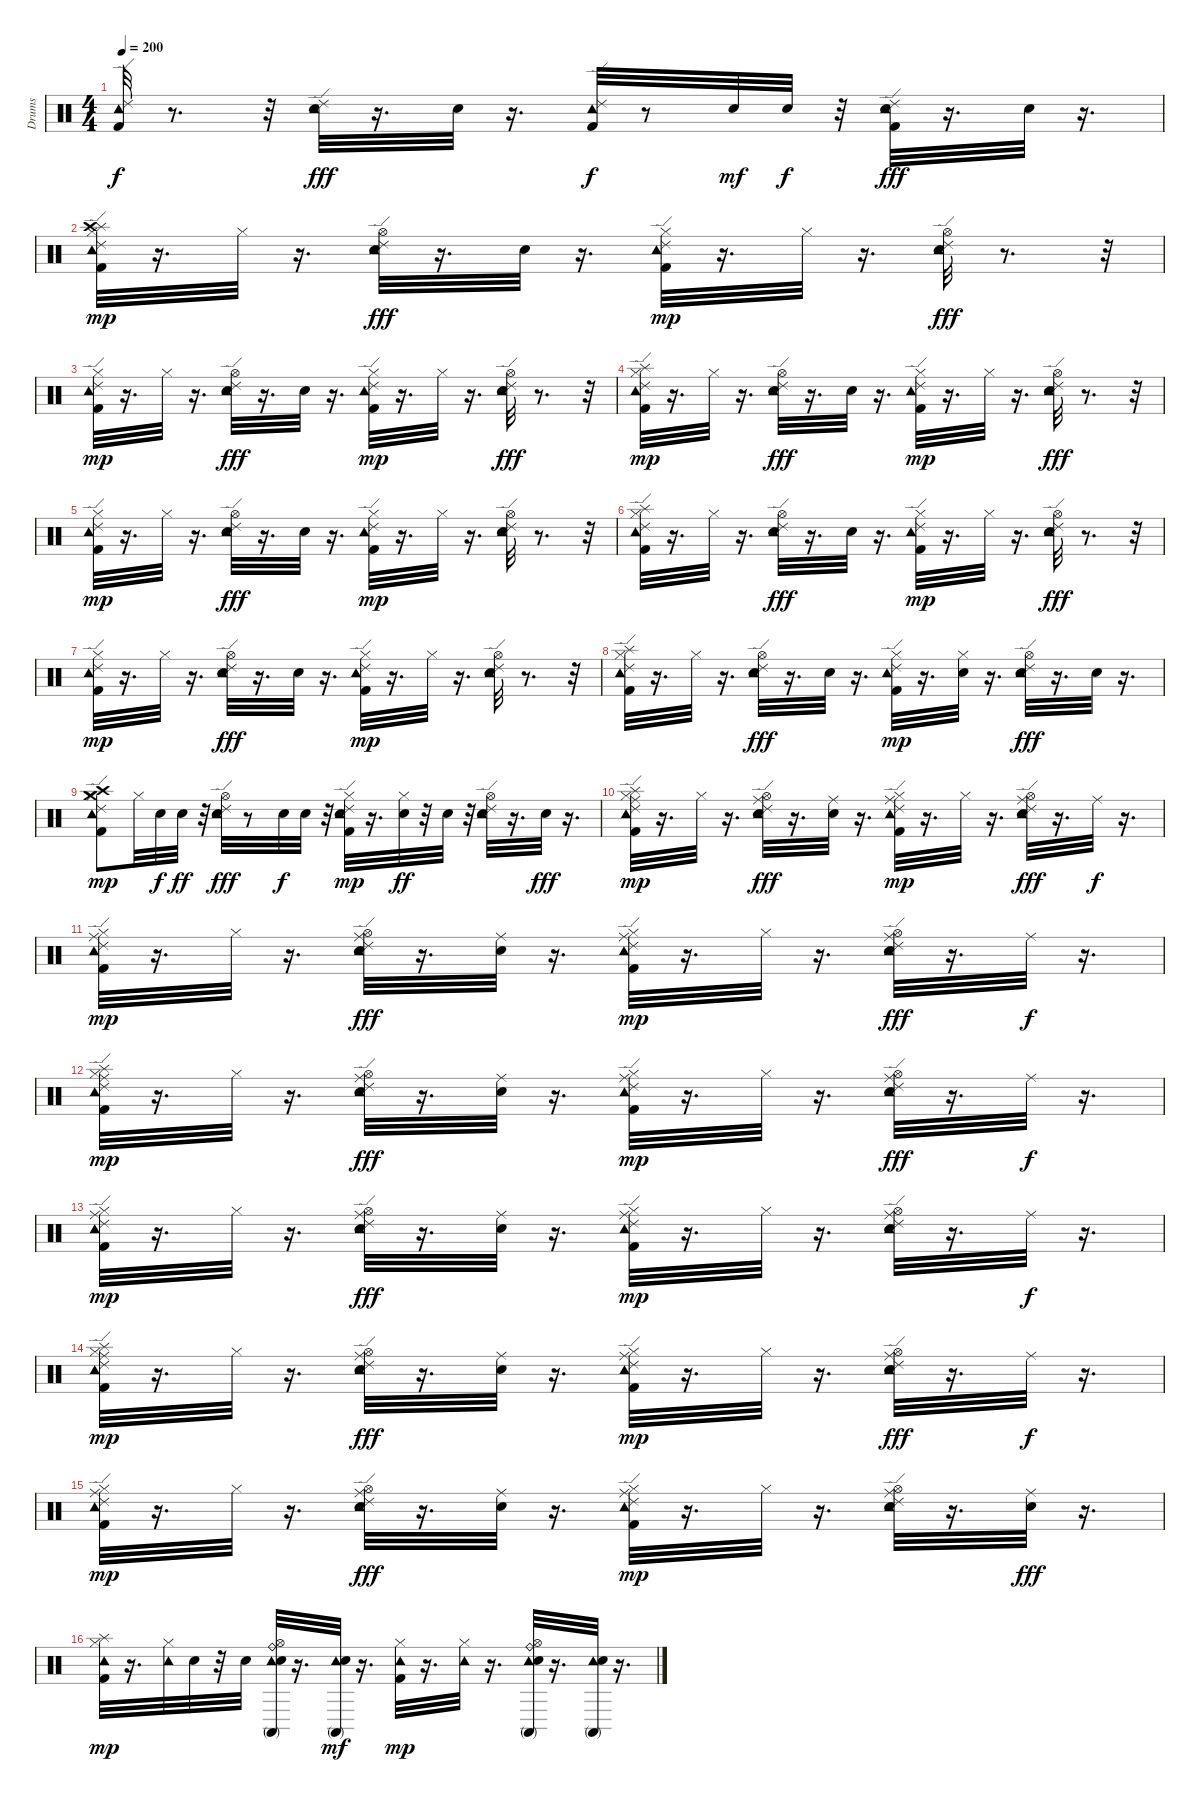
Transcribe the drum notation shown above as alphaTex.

\track ("Drums" "Drums") {instrument percussion}
\staff {score}
\articulation defaults
\ts (4 4)
\tempo 200
\clef neutral
\ks c
("Ride (edge) 2" "Tambourine (hit)" "Kick (hit) 2").32{dy f} r.8{d} r.32 ("Ride (edge) 2" "Tambourine (hit)" "Electric Snare (hit)").32{dy fff} r.16{d} "Electric Snare (hit)".32 r.16{d} ("Ride (edge) 2" "Tambourine (hit)" "Kick (hit) 2").32{dy f} r.8 "Electric Snare (hit)".32{dy mf} "Electric Snare (hit)".32{dy f} r.32 ("Electric Snare (hit)" "Ride (edge) 2" "Tambourine (hit)" "Kick (hit) 2").32{dy fff} r.16{d} "Electric Snare (hit)".32 r.16{d} |
("Ride (edge) 2" "Tambourine (hit)" "Hi-Hat (closed)" "Kick (hit) 2" "Splash (hit)" "Crash high (hit)").32{dy mp} r.16{d} "Hi-Hat (closed)".32 r.16{d} ("Ride (edge) 2" "Tambourine (hit)" "Hi-Hat (open)" "Electric Snare (hit)").32{dy fff} r.16{d} "Electric Snare (hit)".32 r.16{d} ("Ride (edge) 2" "Tambourine (hit)" "Kick (hit) 2" "Hi-Hat (closed)").32{dy mp} r.16{d} "Hi-Hat (closed)".32 r.16{d} ("Ride (edge) 2" "Tambourine (hit)" "Hi-Hat (open)" "Electric Snare (hit)").32{dy fff} r.8{d} r.32 |
("Ride (edge) 2" "Tambourine (hit)" "Hi-Hat (closed)" "Kick (hit) 2").32{dy mp} r.16{d} "Hi-Hat (closed)".32 r.16{d} ("Ride (edge) 2" "Tambourine (hit)" "Hi-Hat (open)" "Electric Snare (hit)").32{dy fff} r.16{d} "Electric Snare (hit)".32 r.16{d} ("Ride (edge) 2" "Tambourine (hit)" "Kick (hit) 2" "Hi-Hat (closed)").32{dy mp} r.16{d} "Hi-Hat (closed)".32 r.16{d} ("Ride (edge) 2" "Tambourine (hit)" "Hi-Hat (open)" "Electric Snare (hit)").32{dy fff} r.8{d} r.32 |
("Ride (edge) 2" "Tambourine (hit)" "Hi-Hat (closed)" "Kick (hit) 2" "Splash (hit)").32{dy mp} r.16{d} "Hi-Hat (closed)".32 r.16{d} ("Ride (edge) 2" "Tambourine (hit)" "Hi-Hat (open)" "Electric Snare (hit)").32{dy fff} r.16{d} "Electric Snare (hit)".32 r.16{d} ("Ride (edge) 2" "Tambourine (hit)" "Kick (hit) 2" "Hi-Hat (closed)").32{dy mp} r.16{d} "Hi-Hat (closed)".32 r.16{d} ("Ride (edge) 2" "Tambourine (hit)" "Hi-Hat (open)" "Electric Snare (hit)").32{dy fff} r.8{d} r.32 |
("Tambourine (hit)" "Hi-Hat (closed)" "Kick (hit) 2" "Ride (edge) 2").32{dy mp} r.16{d} "Hi-Hat (closed)".32 r.16{d} ("Ride (edge) 2" "Hi-Hat (open)" "Electric Snare (hit)" "Tambourine (hit)").32{dy fff} r.16{d} "Electric Snare (hit)".32 r.16{d} ("Tambourine (hit)" "Kick (hit) 2" "Hi-Hat (closed)" "Ride (edge) 2").32{dy mp} r.16{d} "Hi-Hat (closed)".32 r.16{d} ("Tambourine (hit)" "Hi-Hat (open)" "Electric Snare (hit)" "Ride (edge) 2").32 r.8{d} r.32 |
("Ride (edge) 2" "Tambourine (hit)" "Hi-Hat (closed)" "Kick (hit) 2" "Splash (hit)").32 r.16{d} "Hi-Hat (closed)".32 r.16{d} ("Ride (edge) 2" "Tambourine (hit)" "Hi-Hat (open)" "Electric Snare (hit)").32{dy fff} r.16{d} "Electric Snare (hit)".32 r.16{d} ("Ride (edge) 2" "Tambourine (hit)" "Kick (hit) 2" "Hi-Hat (closed)").32{dy mp} r.16{d} "Hi-Hat (closed)".32 r.16{d} ("Ride (edge) 2" "Tambourine (hit)" "Hi-Hat (open)" "Electric Snare (hit)").32{dy fff} r.8{d} r.32 |
("Tambourine (hit)" "Hi-Hat (closed)" "Kick (hit) 2" "Ride (edge) 2").32{dy mp} r.16{d} "Hi-Hat (closed)".32 r.16{d} ("Ride (edge) 2" "Hi-Hat (open)" "Electric Snare (hit)" "Tambourine (hit)").32{dy fff} r.16{d} "Electric Snare (hit)".32 r.16{d} ("Tambourine (hit)" "Kick (hit) 2" "Hi-Hat (closed)" "Ride (edge) 2").32{dy mp} r.16{d} "Hi-Hat (closed)".32 r.16{d} ("Tambourine (hit)" "Hi-Hat (open)" "Electric Snare (hit)" "Ride (edge) 2").32 r.8{d} r.32 |
("Ride (edge) 2" "Tambourine (hit)" "Hi-Hat (closed)" "Kick (hit) 2" "Splash (hit)").32 r.16{d} "Hi-Hat (closed)".32 r.16{d} ("Ride (edge) 2" "Tambourine (hit)" "Hi-Hat (open)" "Electric Snare (hit)").32{dy fff} r.16{d} "Electric Snare (hit)".32 r.16{d} ("Ride (edge) 2" "Tambourine (hit)" "Kick (hit) 2" "Hi-Hat (closed)").32{dy mp} r.16{d} ("Electric Snare (hit)" "Hi-Hat (closed)").32 r.16{d} ("Ride (edge) 2" "Tambourine (hit)" "Hi-Hat (open)" "Electric Snare (hit)").32{dy fff} r.16{d} "Electric Snare (hit)".32 r.16{d} |
("Crash high (hit)" "Crash medium (hit)" "Tambourine (hit)" "Hi-Hat (closed)" "Kick (hit) 2" "Ride (edge) 2").8{dy mp} "Hi-Hat (closed)".32 "Electric Snare (hit)".32{dy f} "Electric Snare (hit)".32{dy ff} r.32 ("Ride (edge) 2" "Hi-Hat (open)" "Electric Snare (hit)" "Tambourine (hit)").32{dy fff} r.8 "Electric Snare (hit)".32{dy f} "Electric Snare (hit)".32 r.32 ("Electric Snare (hit)" "Tambourine (hit)" "Kick (hit) 2" "Hi-Hat (closed)" "Ride (edge) 2").32{dy mp} r.16{d} ("Hi-Hat (closed)" "Electric Snare (hit)").32{dy ff} r.32 "Electric Snare (hit)".32 r.32 ("Tambourine (hit)" "Hi-Hat (open)" "Electric Snare (hit)" "Ride (edge) 2").32 r.16{d} "Electric Snare (hit)".32{dy fff} r.16{d} |
("Ride (middle)" "Ride (edge) 2" "Tambourine (hit)" "Hi-Hat (closed)" "Kick (hit) 2" "Splash (hit)").32{dy mp} r.16{d} "Hi-Hat (closed)".32 r.16{d} ("Ride (middle)" "Ride (edge) 2" "Tambourine (hit)" "Hi-Hat (open)" "Electric Snare (hit)").32{dy fff} r.16{d} ("Ride (middle)" "Electric Snare (hit)").32 r.16{d} ("Ride (middle)" "Ride (edge) 2" "Tambourine (hit)" "Kick (hit) 2" "Hi-Hat (closed)").32{dy mp} r.16{d} "Hi-Hat (closed)".32 r.16{d} ("Ride (middle)" "Ride (edge) 2" "Tambourine (hit)" "Hi-Hat (open)" "Electric Snare (hit)").32{dy fff} r.16{d} "Ride (middle)".32{dy f} r.16{d} |
("Ride (middle)" "Ride (edge) 2" "Tambourine (hit)" "Hi-Hat (closed)" "Kick (hit) 2").32{dy mp} r.16{d} "Hi-Hat (closed)".32 r.16{d} ("Ride (middle)" "Ride (edge) 2" "Tambourine (hit)" "Hi-Hat (open)" "Electric Snare (hit)").32{dy fff} r.16{d} ("Ride (middle)" "Electric Snare (hit)").32 r.16{d} ("Ride (middle)" "Ride (edge) 2" "Tambourine (hit)" "Kick (hit) 2" "Hi-Hat (closed)").32{dy mp} r.16{d} "Hi-Hat (closed)".32 r.16{d} ("Ride (middle)" "Ride (edge) 2" "Tambourine (hit)" "Hi-Hat (open)" "Electric Snare (hit)").32{dy fff} r.16{d} "Ride (middle)".32{dy f} r.16{d} |
("Ride (middle)" "Ride (edge) 2" "Tambourine (hit)" "Hi-Hat (closed)" "Kick (hit) 2" "Splash (hit)").32{dy mp} r.16{d} "Hi-Hat (closed)".32 r.16{d} ("Ride (middle)" "Ride (edge) 2" "Tambourine (hit)" "Hi-Hat (open)" "Electric Snare (hit)").32{dy fff} r.16{d} ("Ride (middle)" "Electric Snare (hit)").32 r.16{d} ("Ride (middle)" "Ride (edge) 2" "Tambourine (hit)" "Kick (hit) 2" "Hi-Hat (closed)").32{dy mp} r.16{d} "Hi-Hat (closed)".32 r.16{d} ("Ride (middle)" "Ride (edge) 2" "Tambourine (hit)" "Hi-Hat (open)" "Electric Snare (hit)").32{dy fff} r.16{d} "Ride (middle)".32{dy f} r.16{d} |
("Ride (middle)" "Tambourine (hit)" "Hi-Hat (closed)" "Kick (hit) 2" "Ride (edge) 2").32{dy mp} r.16{d} "Hi-Hat (closed)".32 r.16{d} ("Ride (middle)" "Ride (edge) 2" "Hi-Hat (open)" "Electric Snare (hit)" "Tambourine (hit)").32{dy fff} r.16{d} ("Ride (middle)" "Electric Snare (hit)").32 r.16{d} ("Ride (middle)" "Tambourine (hit)" "Kick (hit) 2" "Hi-Hat (closed)" "Ride (edge) 2").32{dy mp} r.16{d} "Hi-Hat (closed)".32 r.16{d} ("Ride (middle)" "Tambourine (hit)" "Hi-Hat (open)" "Electric Snare (hit)" "Ride (edge) 2").32 r.16{d} "Ride (middle)".32{dy f} r.16{d} |
("Ride (middle)" "Ride (edge) 2" "Tambourine (hit)" "Hi-Hat (closed)" "Kick (hit) 2" "Splash (hit)").32{dy mp} r.16{d} "Hi-Hat (closed)".32 r.16{d} ("Ride (middle)" "Ride (edge) 2" "Tambourine (hit)" "Hi-Hat (open)" "Electric Snare (hit)").32{dy fff} r.16{d} ("Ride (middle)" "Electric Snare (hit)").32 r.16{d} ("Ride (middle)" "Ride (edge) 2" "Tambourine (hit)" "Kick (hit) 2" "Hi-Hat (closed)").32{dy mp} r.16{d} "Hi-Hat (closed)".32 r.16{d} ("Ride (middle)" "Ride (edge) 2" "Tambourine (hit)" "Hi-Hat (open)" "Electric Snare (hit)").32{dy fff} r.16{d} "Ride (middle)".32{dy f} r.16{d} |
("Ride (middle)" "Tambourine (hit)" "Hi-Hat (closed)" "Kick (hit) 2" "Ride (edge) 2").32{dy mp} r.16{d} "Hi-Hat (closed)".32 r.16{d} ("Ride (middle)" "Ride (edge) 2" "Hi-Hat (open)" "Electric Snare (hit)" "Tambourine (hit)").32{dy fff} r.16{d} ("Ride (middle)" "Electric Snare (hit)").32 r.16{d} ("Ride (middle)" "Tambourine (hit)" "Kick (hit) 2" "Hi-Hat (closed)" "Ride (edge) 2").32{dy mp} r.16{d} "Hi-Hat (closed)".32 r.16{d} ("Ride (middle)" "Tambourine (hit)" "Hi-Hat (open)" "Electric Snare (hit)" "Ride (edge) 2").32 r.16{d} ("Electric Snare (hit)" "Ride (middle)").32{dy fff} r.16{d} |
("Splash (hit)" "Kick (hit) 2" "Hi-Hat (closed)" "Tambourine (hit)").32{dy mp} r.16{d} ("Tambourine (hit)" "Hi-Hat (closed)").32 "Electric Snare (hit)".32 r.32 "Electric Snare (hit)".32 ("Tambourine (hit)" "Hi-Hat (open)" "Ride (bell)" "Electric Snare (hit)" "Conga high (mute)").32 r.16{d} ("Tambourine (hit)" "Conga high (mute)" "Electric Snare (hit)").32{dy mf} r.16{d} ("Tambourine (hit)" "Hi-Hat (closed)" "Kick (hit) 2").32{dy mp} r.16{d} ("Tambourine (hit)" "Hi-Hat (closed)").32 r.16{d} ("Tambourine (hit)" "Ride (bell)" "Hi-Hat (open)" "Conga high (mute)" "Electric Snare (hit)").32 r.16{d} ("Tambourine (hit)" "Conga high (mute)" "Electric Snare (hit)").32 r.16{d}
